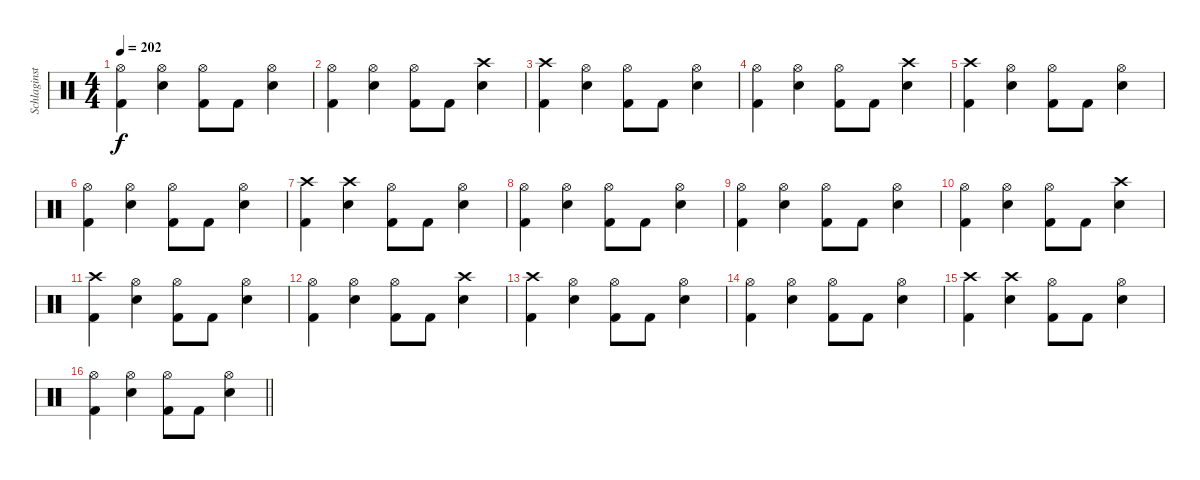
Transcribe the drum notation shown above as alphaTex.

\track ("Schlaginstrumente - Auswahl" "Schlaginst") {instrument percussion bank 1}
\staff {score}
\articulation defaults
\ts (4 4)
\tempo 202
\clef neutral
\ks c
("Hi-Hat (open)" "Kick (hit) 2").4{dy f} ("Hi-Hat (open)" "Snare (hit) 2").4 ("Hi-Hat (open)" "Kick (hit) 2").8 "Kick (hit) 2".8 ("Hi-Hat (open)" "Snare (hit) 2").4 |
("Hi-Hat (open)" "Kick (hit) 2").4 ("Hi-Hat (open)" "Snare (hit) 2").4 ("Hi-Hat (open)" "Kick (hit) 2").8 "Kick (hit) 2".8 ("Crash high (hit)" "Snare (hit) 2").4 |
("Crash high (hit)" "Kick (hit) 2").4 ("Hi-Hat (open)" "Snare (hit) 2").4 ("Hi-Hat (open)" "Kick (hit) 2").8 "Kick (hit) 2".8 ("Hi-Hat (open)" "Snare (hit) 2").4 |
("Hi-Hat (open)" "Kick (hit) 2").4 ("Hi-Hat (open)" "Snare (hit) 2").4 ("Hi-Hat (open)" "Kick (hit) 2").8 "Kick (hit) 2".8 ("Crash high (hit)" "Snare (hit) 2").4 |
("Crash high (hit)" "Kick (hit) 2").4 ("Hi-Hat (open)" "Snare (hit) 2").4 ("Hi-Hat (open)" "Kick (hit) 2").8 "Kick (hit) 2".8 ("Hi-Hat (open)" "Snare (hit) 2").4 |
("Hi-Hat (open)" "Kick (hit) 2").4 ("Hi-Hat (open)" "Snare (hit) 2").4 ("Hi-Hat (open)" "Kick (hit) 2").8 "Kick (hit) 2".8 ("Hi-Hat (open)" "Snare (hit) 2").4 |
("Crash high (hit)" "Kick (hit) 2").4 ("Crash high (hit)" "Snare (hit) 2").4 ("Hi-Hat (open)" "Kick (hit) 2").8 "Kick (hit) 2".8 ("Hi-Hat (open)" "Snare (hit) 2").4 |
("Hi-Hat (open)" "Kick (hit) 2").4 ("Hi-Hat (open)" "Snare (hit) 2").4 ("Hi-Hat (open)" "Kick (hit) 2").8 "Kick (hit) 2".8 ("Hi-Hat (open)" "Snare (hit) 2").4 |
("Hi-Hat (open)" "Kick (hit) 2").4 ("Hi-Hat (open)" "Snare (hit) 2").4 ("Hi-Hat (open)" "Kick (hit) 2").8 "Kick (hit) 2".8 ("Hi-Hat (open)" "Snare (hit) 2").4 |
("Hi-Hat (open)" "Kick (hit) 2").4 ("Hi-Hat (open)" "Snare (hit) 2").4 ("Hi-Hat (open)" "Kick (hit) 2").8 "Kick (hit) 2".8 ("Crash high (hit)" "Snare (hit) 2").4 |
("Crash high (hit)" "Kick (hit) 2").4 ("Hi-Hat (open)" "Snare (hit) 2").4 ("Hi-Hat (open)" "Kick (hit) 2").8 "Kick (hit) 2".8 ("Hi-Hat (open)" "Snare (hit) 2").4 |
("Hi-Hat (open)" "Kick (hit) 2").4 ("Hi-Hat (open)" "Snare (hit) 2").4 ("Hi-Hat (open)" "Kick (hit) 2").8 "Kick (hit) 2".8 ("Crash high (hit)" "Snare (hit) 2").4 |
("Crash high (hit)" "Kick (hit) 2").4 ("Hi-Hat (open)" "Snare (hit) 2").4 ("Hi-Hat (open)" "Kick (hit) 2").8 "Kick (hit) 2".8 ("Hi-Hat (open)" "Snare (hit) 2").4 |
("Hi-Hat (open)" "Kick (hit) 2").4 ("Hi-Hat (open)" "Snare (hit) 2").4 ("Hi-Hat (open)" "Kick (hit) 2").8 "Kick (hit) 2".8 ("Hi-Hat (open)" "Snare (hit) 2").4 |
("Crash high (hit)" "Kick (hit) 2").4 ("Crash high (hit)" "Snare (hit) 2").4 ("Hi-Hat (open)" "Kick (hit) 2").8 "Kick (hit) 2".8 ("Hi-Hat (open)" "Snare (hit) 2").4 |
\barLineRight lightlight
("Hi-Hat (open)" "Kick (hit) 2").4 ("Hi-Hat (open)" "Snare (hit) 2").4 ("Hi-Hat (open)" "Kick (hit) 2").8 "Kick (hit) 2".8 ("Hi-Hat (open)" "Snare (hit) 2").4
